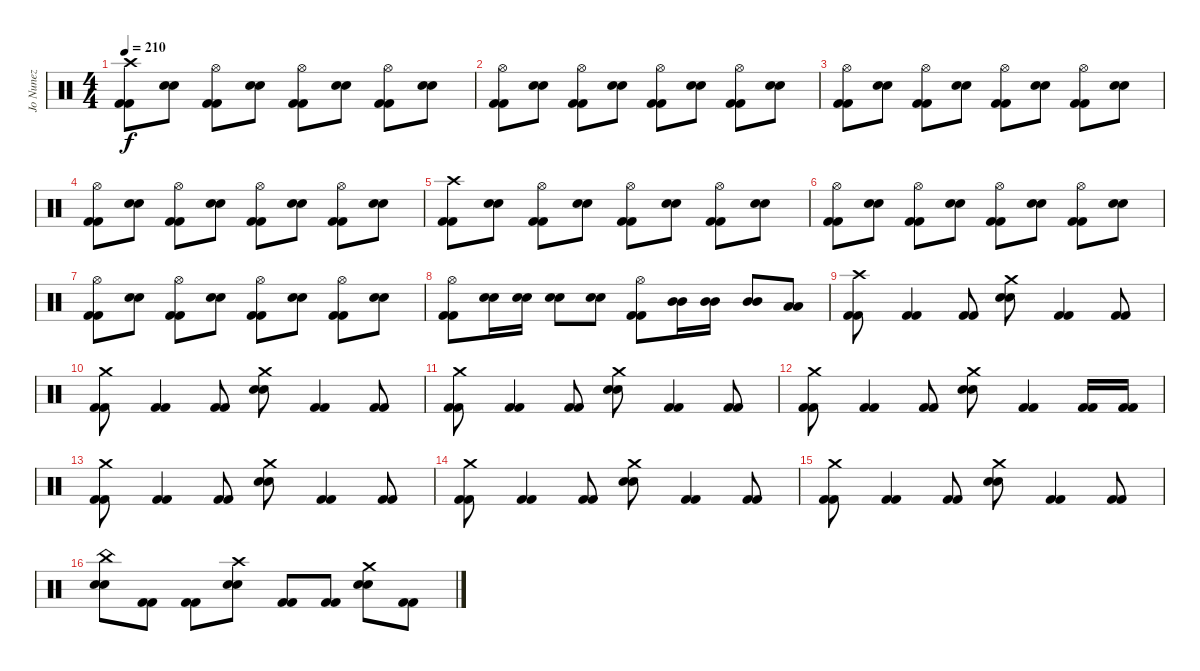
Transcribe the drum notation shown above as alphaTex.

\track ("Jo Nunez" "Jo Nunez") {instrument percussion}
\staff {score}
\articulation defaults
\ts (4 4)
\tempo 210
\clef neutral
\ks c
("Kick (hit) 2" "Kick (hit) 2" "Crash high (hit)").8{dy f} ("Electric Snare (hit)" "Electric Snare (hit)").8 ("Kick (hit) 2" "Kick (hit) 2" "Hi-Hat (open)").8 ("Electric Snare (hit)" "Electric Snare (hit)").8 ("Kick (hit) 2" "Kick (hit) 2" "Hi-Hat (open)").8 ("Electric Snare (hit)" "Electric Snare (hit)").8 ("Kick (hit) 2" "Kick (hit) 2" "Hi-Hat (open)").8 ("Electric Snare (hit)" "Electric Snare (hit)").8 |
("Kick (hit) 2" "Kick (hit) 2" "Hi-Hat (open)").8 ("Electric Snare (hit)" "Electric Snare (hit)").8 ("Kick (hit) 2" "Kick (hit) 2" "Hi-Hat (open)").8 ("Electric Snare (hit)" "Electric Snare (hit)").8 ("Kick (hit) 2" "Kick (hit) 2" "Hi-Hat (open)").8 ("Electric Snare (hit)" "Electric Snare (hit)").8 ("Kick (hit) 2" "Kick (hit) 2" "Hi-Hat (open)").8 ("Electric Snare (hit)" "Electric Snare (hit)").8 |
("Kick (hit) 2" "Kick (hit) 2" "Hi-Hat (open)").8 ("Electric Snare (hit)" "Electric Snare (hit)").8 ("Kick (hit) 2" "Kick (hit) 2" "Hi-Hat (open)").8 ("Electric Snare (hit)" "Electric Snare (hit)").8 ("Kick (hit) 2" "Kick (hit) 2" "Hi-Hat (open)").8 ("Electric Snare (hit)" "Electric Snare (hit)").8 ("Kick (hit) 2" "Kick (hit) 2" "Hi-Hat (open)").8 ("Electric Snare (hit)" "Electric Snare (hit)").8 |
("Kick (hit) 2" "Kick (hit) 2" "Hi-Hat (open)").8 ("Electric Snare (hit)" "Electric Snare (hit)").8 ("Kick (hit) 2" "Kick (hit) 2" "Hi-Hat (open)").8 ("Electric Snare (hit)" "Electric Snare (hit)").8 ("Kick (hit) 2" "Kick (hit) 2" "Hi-Hat (open)").8 ("Electric Snare (hit)" "Electric Snare (hit)").8 ("Kick (hit) 2" "Kick (hit) 2" "Hi-Hat (open)").8 ("Electric Snare (hit)" "Electric Snare (hit)").8 |
("Kick (hit) 2" "Kick (hit) 2" "Crash high (hit)").8 ("Electric Snare (hit)" "Electric Snare (hit)").8 ("Kick (hit) 2" "Kick (hit) 2" "Hi-Hat (open)").8 ("Electric Snare (hit)" "Electric Snare (hit)").8 ("Kick (hit) 2" "Kick (hit) 2" "Hi-Hat (open)").8 ("Electric Snare (hit)" "Electric Snare (hit)").8 ("Kick (hit) 2" "Kick (hit) 2" "Hi-Hat (open)").8 ("Electric Snare (hit)" "Electric Snare (hit)").8 |
("Kick (hit) 2" "Kick (hit) 2" "Hi-Hat (open)").8 ("Electric Snare (hit)" "Electric Snare (hit)").8 ("Kick (hit) 2" "Kick (hit) 2" "Hi-Hat (open)").8 ("Electric Snare (hit)" "Electric Snare (hit)").8 ("Kick (hit) 2" "Kick (hit) 2" "Hi-Hat (open)").8 ("Electric Snare (hit)" "Electric Snare (hit)").8 ("Kick (hit) 2" "Kick (hit) 2" "Hi-Hat (open)").8 ("Electric Snare (hit)" "Electric Snare (hit)").8 |
("Kick (hit) 2" "Kick (hit) 2" "Hi-Hat (open)").8 ("Electric Snare (hit)" "Electric Snare (hit)").8 ("Kick (hit) 2" "Kick (hit) 2" "Hi-Hat (open)").8 ("Electric Snare (hit)" "Electric Snare (hit)").8 ("Kick (hit) 2" "Kick (hit) 2" "Hi-Hat (open)").8 ("Electric Snare (hit)" "Electric Snare (hit)").8 ("Kick (hit) 2" "Kick (hit) 2" "Hi-Hat (open)").8 ("Electric Snare (hit)" "Electric Snare (hit)").8 |
("Kick (hit) 2" "Kick (hit) 2" "Hi-Hat (open)").8 ("Electric Snare (hit)" "Electric Snare (hit)").16 ("Electric Snare (hit)" "Electric Snare (hit)").16 ("Electric Snare (hit)" "Electric Snare (hit)").8 ("Electric Snare (hit)" "Electric Snare (hit)").8 ("Kick (hit) 2" "Kick (hit) 2" "Hi-Hat (open)").8 ("Mid Tom (hit)" "Mid Tom (hit)").16 ("Mid Tom (hit)" "Mid Tom (hit)").16 ("Mid Tom (hit)" "Mid Tom (hit)").8 ("Low Floor Tom (hit)" "Low Floor Tom (hit)").8 |
("Kick (hit) 2" "Kick (hit) 2" "Crash high (hit)").8 ("Kick (hit) 2" "Kick (hit) 2").4 ("Kick (hit) 2" "Kick (hit) 2").8 ("Electric Snare (hit)" "Electric Snare (hit)" "Crash medium (hit)").8 ("Kick (hit) 2" "Kick (hit) 2").4 ("Kick (hit) 2" "Kick (hit) 2").8 |
("Kick (hit) 2" "Kick (hit) 2" "Crash medium (hit)").8 ("Kick (hit) 2" "Kick (hit) 2").4 ("Kick (hit) 2" "Kick (hit) 2").8 ("Electric Snare (hit)" "Electric Snare (hit)" "Crash medium (hit)").8 ("Kick (hit) 2" "Kick (hit) 2").4 ("Kick (hit) 2" "Kick (hit) 2").8 |
("Kick (hit) 2" "Kick (hit) 2" "Crash medium (hit)").8 ("Kick (hit) 2" "Kick (hit) 2").4 ("Kick (hit) 2" "Kick (hit) 2").8 ("Electric Snare (hit)" "Electric Snare (hit)" "Crash medium (hit)").8 ("Kick (hit) 2" "Kick (hit) 2").4 ("Kick (hit) 2" "Kick (hit) 2").8 |
("Kick (hit) 2" "Kick (hit) 2" "Crash medium (hit)").8 ("Kick (hit) 2" "Kick (hit) 2").4 ("Kick (hit) 2" "Kick (hit) 2").8 ("Electric Snare (hit)" "Electric Snare (hit)" "Crash medium (hit)").8 ("Kick (hit) 2" "Kick (hit) 2").4 ("Kick (hit) 2" "Kick (hit) 2").16 ("Kick (hit) 2" "Kick (hit) 2").16 |
("Kick (hit) 2" "Kick (hit) 2" "Crash medium (hit)").8 ("Kick (hit) 2" "Kick (hit) 2").4 ("Kick (hit) 2" "Kick (hit) 2").8 ("Electric Snare (hit)" "Electric Snare (hit)" "Crash medium (hit)").8 ("Kick (hit) 2" "Kick (hit) 2").4 ("Kick (hit) 2" "Kick (hit) 2").8 |
("Kick (hit) 2" "Kick (hit) 2" "Crash medium (hit)").8 ("Kick (hit) 2" "Kick (hit) 2").4 ("Kick (hit) 2" "Kick (hit) 2").8 ("Electric Snare (hit)" "Electric Snare (hit)" "Crash medium (hit)").8 ("Kick (hit) 2" "Kick (hit) 2").4 ("Kick (hit) 2" "Kick (hit) 2").8 |
("Kick (hit) 2" "Kick (hit) 2" "Crash medium (hit)").8 ("Kick (hit) 2" "Kick (hit) 2").4 ("Kick (hit) 2" "Kick (hit) 2").8 ("Electric Snare (hit)" "Electric Snare (hit)" "Crash medium (hit)").8 ("Kick (hit) 2" "Kick (hit) 2").4 ("Kick (hit) 2" "Kick (hit) 2").8 |
("Electric Snare (hit)" "Electric Snare (hit)" "China (hit)").8 ("Kick (hit) 2" "Kick (hit) 2").8 ("Kick (hit) 2" "Kick (hit) 2").8 ("Electric Snare (hit)" "Electric Snare (hit)" "Crash high (hit)").8 ("Kick (hit) 2" "Kick (hit) 2").8 ("Kick (hit) 2" "Kick (hit) 2").8 ("Electric Snare (hit)" "Electric Snare (hit)" "Crash medium (hit)").8 ("Kick (hit) 2" "Kick (hit) 2").8
